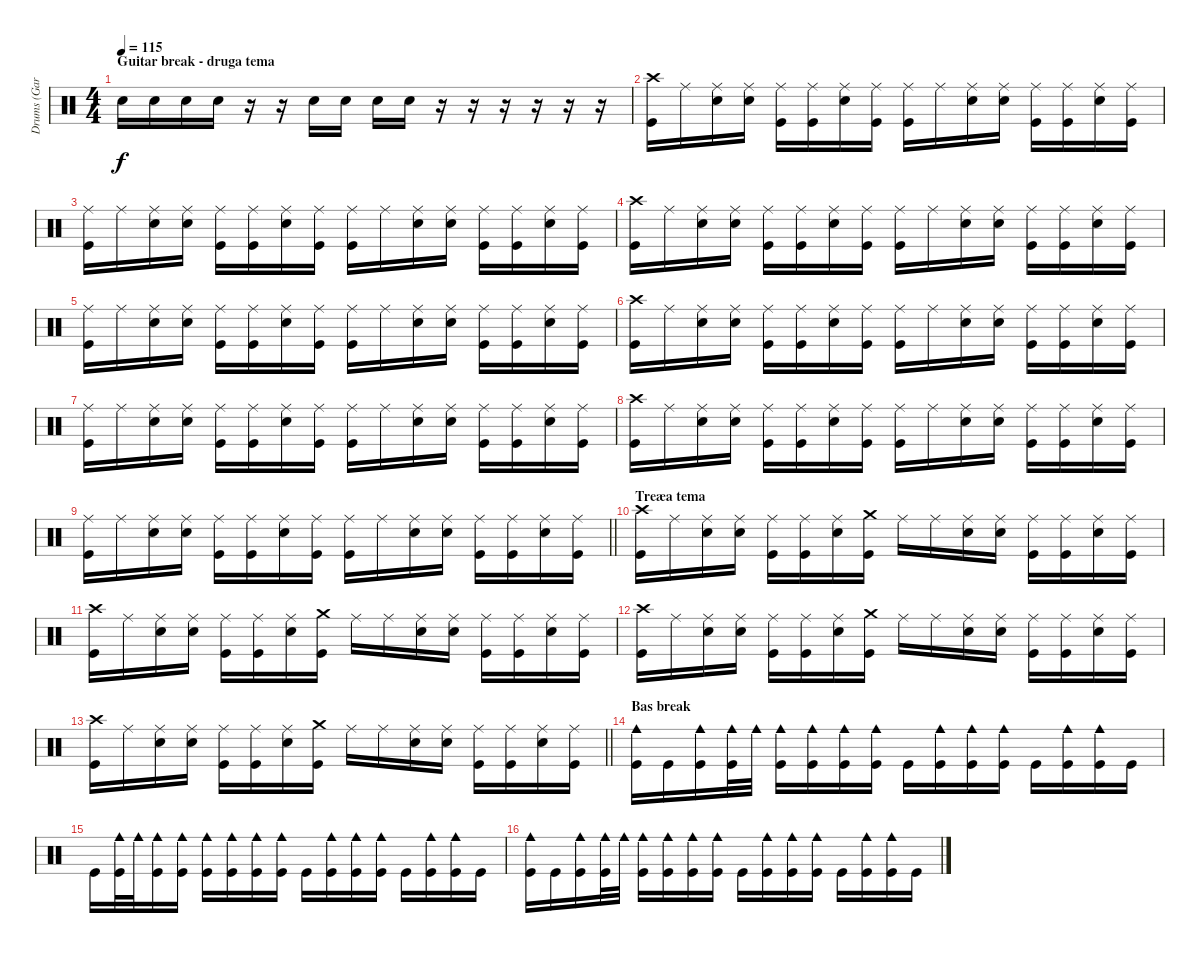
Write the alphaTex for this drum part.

\track ("Drums (Garabet Tavitjan)" "Drums (Gar") {instrument percussion}
\staff {score}
\articulation defaults
\ts (4 4)
\section ("" "Guitar break - druga tema")
\tempo 115
\clef neutral
\ks c "Electric Snare (hit)".16{dy f} "Electric Snare (hit)".16 "Electric Snare (hit)".16 "Electric Snare (hit)".16
r.16 r.16 "Electric Snare (hit)".16 "Electric Snare (hit)".16 "Electric Snare (hit)".16 "Electric Snare (hit)".16 r.16 r.16 r.16 r.16 r.16 r.16 |
("Crash high (hit)" "Kick (hit)").16 "Ride (middle)".16 ("Ride (middle)" "Electric Snare (hit)").16 ("Ride (middle)" "Electric Snare (hit)").16 ("Ride (middle)" "Kick (hit)").16 ("Ride (middle)" "Kick (hit)").16 ("Ride (middle)" "Electric Snare (hit)").16 ("Ride (middle)" "Kick (hit)").16 ("Ride (middle)" "Kick (hit)").16 "Ride (middle)".16 ("Ride (middle)" "Electric Snare (hit)").16 ("Ride (middle)" "Electric Snare (hit)").16 ("Ride (middle)" "Kick (hit)").16 ("Ride (middle)" "Kick (hit)").16 ("Ride (middle)" "Electric Snare (hit)").16 ("Ride (middle)" "Kick (hit)").16 |
("Ride (middle)" "Kick (hit)").16 "Ride (middle)".16 ("Ride (middle)" "Electric Snare (hit)").16 ("Ride (middle)" "Electric Snare (hit)").16 ("Ride (middle)" "Kick (hit)").16 ("Ride (middle)" "Kick (hit)").16 ("Ride (middle)" "Electric Snare (hit)").16 ("Ride (middle)" "Kick (hit)").16 ("Ride (middle)" "Kick (hit)").16 "Ride (middle)".16 ("Ride (middle)" "Electric Snare (hit)").16 ("Ride (middle)" "Electric Snare (hit)").16 ("Ride (middle)" "Kick (hit)").16 ("Ride (middle)" "Kick (hit)").16 ("Ride (middle)" "Electric Snare (hit)").16 ("Ride (middle)" "Kick (hit)").16 |
("Crash high (hit)" "Kick (hit)").16 "Ride (middle)".16 ("Ride (middle)" "Electric Snare (hit)").16 ("Ride (middle)" "Electric Snare (hit)").16 ("Ride (middle)" "Kick (hit)").16 ("Ride (middle)" "Kick (hit)").16 ("Ride (middle)" "Electric Snare (hit)").16 ("Ride (middle)" "Kick (hit)").16 ("Ride (middle)" "Kick (hit)").16 "Ride (middle)".16 ("Ride (middle)" "Electric Snare (hit)").16 ("Ride (middle)" "Electric Snare (hit)").16 ("Ride (middle)" "Kick (hit)").16 ("Ride (middle)" "Kick (hit)").16 ("Ride (middle)" "Electric Snare (hit)").16 ("Ride (middle)" "Kick (hit)").16 |
("Ride (middle)" "Kick (hit)").16 "Ride (middle)".16 ("Ride (middle)" "Electric Snare (hit)").16 ("Ride (middle)" "Electric Snare (hit)").16 ("Ride (middle)" "Kick (hit)").16 ("Ride (middle)" "Kick (hit)").16 ("Ride (middle)" "Electric Snare (hit)").16 ("Ride (middle)" "Kick (hit)").16 ("Ride (middle)" "Kick (hit)").16 "Ride (middle)".16 ("Ride (middle)" "Electric Snare (hit)").16 ("Ride (middle)" "Electric Snare (hit)").16 ("Ride (middle)" "Kick (hit)").16 ("Ride (middle)" "Kick (hit)").16 ("Ride (middle)" "Electric Snare (hit)").16 ("Ride (middle)" "Kick (hit)").16 |
("Crash high (hit)" "Kick (hit)").16 "Ride (middle)".16 ("Ride (middle)" "Electric Snare (hit)").16 ("Ride (middle)" "Electric Snare (hit)").16 ("Ride (middle)" "Kick (hit)").16 ("Ride (middle)" "Kick (hit)").16 ("Ride (middle)" "Electric Snare (hit)").16 ("Ride (middle)" "Kick (hit)").16 ("Ride (middle)" "Kick (hit)").16 "Ride (middle)".16 ("Ride (middle)" "Electric Snare (hit)").16 ("Ride (middle)" "Electric Snare (hit)").16 ("Ride (middle)" "Kick (hit)").16 ("Ride (middle)" "Kick (hit)").16 ("Ride (middle)" "Electric Snare (hit)").16 ("Ride (middle)" "Kick (hit)").16 |
("Ride (middle)" "Kick (hit)").16 "Ride (middle)".16 ("Ride (middle)" "Electric Snare (hit)").16 ("Ride (middle)" "Electric Snare (hit)").16 ("Ride (middle)" "Kick (hit)").16 ("Ride (middle)" "Kick (hit)").16 ("Ride (middle)" "Electric Snare (hit)").16 ("Ride (middle)" "Kick (hit)").16 ("Ride (middle)" "Kick (hit)").16 "Ride (middle)".16 ("Ride (middle)" "Electric Snare (hit)").16 ("Ride (middle)" "Electric Snare (hit)").16 ("Ride (middle)" "Kick (hit)").16 ("Ride (middle)" "Kick (hit)").16 ("Ride (middle)" "Electric Snare (hit)").16 ("Ride (middle)" "Kick (hit)").16 |
("Crash high (hit)" "Kick (hit)").16 "Ride (middle)".16 ("Ride (middle)" "Electric Snare (hit)").16 ("Ride (middle)" "Electric Snare (hit)").16 ("Ride (middle)" "Kick (hit)").16 ("Ride (middle)" "Kick (hit)").16 ("Ride (middle)" "Electric Snare (hit)").16 ("Ride (middle)" "Kick (hit)").16 ("Ride (middle)" "Kick (hit)").16 "Ride (middle)".16 ("Ride (middle)" "Electric Snare (hit)").16 ("Ride (middle)" "Electric Snare (hit)").16 ("Ride (middle)" "Kick (hit)").16 ("Ride (middle)" "Kick (hit)").16 ("Ride (middle)" "Electric Snare (hit)").16 ("Ride (middle)" "Kick (hit)").16 |
\barLineRight lightlight
("Ride (middle)" "Kick (hit)").16 "Ride (middle)".16 ("Ride (middle)" "Electric Snare (hit)").16 ("Ride (middle)" "Electric Snare (hit)").16 ("Ride (middle)" "Kick (hit)").16 ("Ride (middle)" "Kick (hit)").16 ("Ride (middle)" "Electric Snare (hit)").16 ("Ride (middle)" "Kick (hit)").16 ("Ride (middle)" "Kick (hit)").16 "Ride (middle)".16 ("Ride (middle)" "Electric Snare (hit)").16 ("Ride (middle)" "Electric Snare (hit)").16 ("Ride (middle)" "Kick (hit)").16 ("Ride (middle)" "Kick (hit)").16 ("Ride (middle)" "Electric Snare (hit)").16 ("Ride (middle)" "Kick (hit)").16 |
\section ("" "Treæa tema")
("Crash high (hit)" "Kick (hit)").16 "Ride (middle)".16 ("Ride (middle)" "Electric Snare (hit)").16 ("Ride (middle)" "Electric Snare (hit)").16 ("Ride (middle)" "Kick (hit)").16 ("Ride (middle)" "Kick (hit)").16 ("Ride (middle)" "Electric Snare (hit)").16 ("Crash medium (hit)" "Kick (hit)").16 "Ride (middle)".16 "Ride (middle)".16 ("Ride (middle)" "Electric Snare (hit)").16 ("Ride (middle)" "Electric Snare (hit)").16 ("Ride (middle)" "Kick (hit)").16 ("Ride (middle)" "Kick (hit)").16 ("Ride (middle)" "Electric Snare (hit)").16 ("Ride (middle)" "Kick (hit)").16 |
("Crash high (hit)" "Kick (hit)").16 "Ride (middle)".16 ("Ride (middle)" "Electric Snare (hit)").16 ("Ride (middle)" "Electric Snare (hit)").16 ("Ride (middle)" "Kick (hit)").16 ("Ride (middle)" "Kick (hit)").16 ("Ride (middle)" "Electric Snare (hit)").16 ("Crash medium (hit)" "Kick (hit)").16 "Ride (middle)".16 "Ride (middle)".16 ("Ride (middle)" "Electric Snare (hit)").16 ("Ride (middle)" "Electric Snare (hit)").16 ("Ride (middle)" "Kick (hit)").16 ("Ride (middle)" "Kick (hit)").16 ("Ride (middle)" "Electric Snare (hit)").16 ("Ride (middle)" "Kick (hit)").16 |
("Crash high (hit)" "Kick (hit)").16 "Ride (middle)".16 ("Ride (middle)" "Electric Snare (hit)").16 ("Ride (middle)" "Electric Snare (hit)").16 ("Ride (middle)" "Kick (hit)").16 ("Ride (middle)" "Kick (hit)").16 ("Ride (middle)" "Electric Snare (hit)").16 ("Crash medium (hit)" "Kick (hit)").16 "Ride (middle)".16 "Ride (middle)".16 ("Ride (middle)" "Electric Snare (hit)").16 ("Ride (middle)" "Electric Snare (hit)").16 ("Ride (middle)" "Kick (hit)").16 ("Ride (middle)" "Kick (hit)").16 ("Ride (middle)" "Electric Snare (hit)").16 ("Ride (middle)" "Kick (hit)").16 |
\barLineRight lightlight
("Crash high (hit)" "Kick (hit)").16 "Ride (middle)".16 ("Ride (middle)" "Electric Snare (hit)").16 ("Ride (middle)" "Electric Snare (hit)").16 ("Ride (middle)" "Kick (hit)").16 ("Ride (middle)" "Kick (hit)").16 ("Ride (middle)" "Electric Snare (hit)").16 ("Crash medium (hit)" "Kick (hit)").16 "Ride (middle)".16 "Ride (middle)".16 ("Ride (middle)" "Electric Snare (hit)").16 ("Ride (middle)" "Electric Snare (hit)").16 ("Ride (middle)" "Kick (hit)").16 ("Ride (middle)" "Kick (hit)").16 ("Ride (middle)" "Electric Snare (hit)").16 ("Ride (middle)" "Kick (hit)").16 |
\section ("" "Bas break")
("Cowbell medium (hit)" "Kick (hit)").16 "Kick (hit)".16 ("Cowbell medium (hit)" "Kick (hit)").16 ("Cowbell medium (hit)" "Kick (hit)").32 "Cowbell medium (hit)".32 ("Cowbell medium (hit)" "Kick (hit)").16 ("Cowbell medium (hit)" "Kick (hit)").16 ("Cowbell medium (hit)" "Kick (hit)").16 ("Cowbell medium (hit)" "Kick (hit)").16 "Kick (hit)".16 ("Cowbell medium (hit)" "Kick (hit)").16 ("Cowbell medium (hit)" "Kick (hit)").16 ("Cowbell medium (hit)" "Kick (hit)").16 "Kick (hit)".16 ("Cowbell medium (hit)" "Kick (hit)").16 ("Cowbell medium (hit)" "Kick (hit)").16 "Kick (hit)".16 |
"Kick (hit)".16 ("Cowbell medium (hit)" "Kick (hit)").32 "Cowbell medium (hit)".32 ("Cowbell medium (hit)" "Kick (hit)").16 ("Cowbell medium (hit)" "Kick (hit)").16 ("Cowbell medium (hit)" "Kick (hit)").16 ("Cowbell medium (hit)" "Kick (hit)").16 ("Cowbell medium (hit)" "Kick (hit)").16 ("Cowbell medium (hit)" "Kick (hit)").16 "Kick (hit)".16 ("Cowbell medium (hit)" "Kick (hit)").16 ("Cowbell medium (hit)" "Kick (hit)").16 ("Cowbell medium (hit)" "Kick (hit)").16 "Kick (hit)".16 ("Cowbell medium (hit)" "Kick (hit)").16 ("Cowbell medium (hit)" "Kick (hit)").16 "Kick (hit)".16 |
("Cowbell medium (hit)" "Kick (hit)").16 "Kick (hit)".16 ("Cowbell medium (hit)" "Kick (hit)").16 ("Cowbell medium (hit)" "Kick (hit)").32 "Cowbell medium (hit)".32 ("Cowbell medium (hit)" "Kick (hit)").16 ("Cowbell medium (hit)" "Kick (hit)").16 ("Cowbell medium (hit)" "Kick (hit)").16 ("Cowbell medium (hit)" "Kick (hit)").16 "Kick (hit)".16 ("Cowbell medium (hit)" "Kick (hit)").16 ("Cowbell medium (hit)" "Kick (hit)").16 ("Cowbell medium (hit)" "Kick (hit)").16 "Kick (hit)".16 ("Cowbell medium (hit)" "Kick (hit)").16 ("Cowbell medium (hit)" "Kick (hit)").16 "Kick (hit)".16
